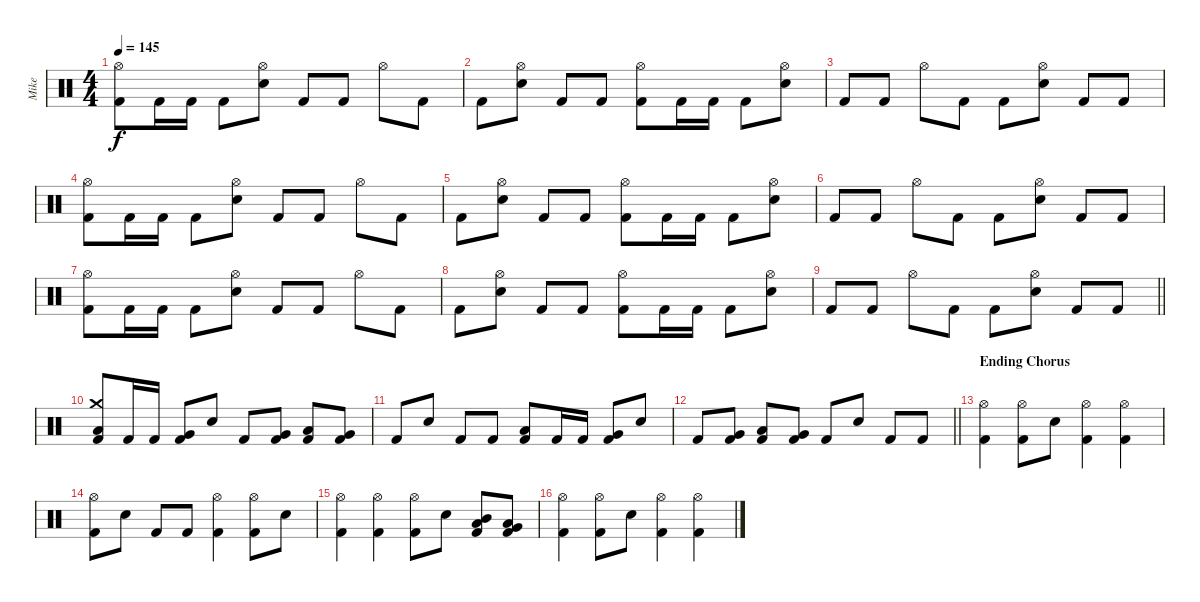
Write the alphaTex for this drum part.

\track ("Mike" "Mike") {instrument percussion}
\staff {score}
\articulation defaults
\ts (4 4)
\tempo 145
\clef neutral
\ks c
("Hi-Hat (open)" "Kick (hit) 2").8{dy f} "Kick (hit) 2".16 "Kick (hit) 2".16 "Kick (hit) 2".8 ("Hi-Hat (open)" "Snare (hit) 2").8 "Kick (hit) 2".8 "Kick (hit) 2".8 "Hi-Hat (open)".8 "Kick (hit) 2".8 |
"Kick (hit) 2".8 ("Hi-Hat (open)" "Snare (hit) 2").8 "Kick (hit) 2".8 "Kick (hit) 2".8 ("Hi-Hat (open)" "Kick (hit) 2").8 "Kick (hit) 2".16 "Kick (hit) 2".16 "Kick (hit) 2".8 ("Hi-Hat (open)" "Snare (hit) 2").8 |
"Kick (hit) 2".8 "Kick (hit) 2".8 "Hi-Hat (open)".8 "Kick (hit) 2".8 "Kick (hit) 2".8 ("Hi-Hat (open)" "Snare (hit) 2").8 "Kick (hit) 2".8 "Kick (hit) 2".8 |
("Hi-Hat (open)" "Kick (hit) 2").8 "Kick (hit) 2".16 "Kick (hit) 2".16 "Kick (hit) 2".8 ("Hi-Hat (open)" "Snare (hit) 2").8 "Kick (hit) 2".8 "Kick (hit) 2".8 "Hi-Hat (open)".8 "Kick (hit) 2".8 |
"Kick (hit) 2".8 ("Hi-Hat (open)" "Snare (hit) 2").8 "Kick (hit) 2".8 "Kick (hit) 2".8 ("Hi-Hat (open)" "Kick (hit) 2").8 "Kick (hit) 2".16 "Kick (hit) 2".16 "Kick (hit) 2".8 ("Hi-Hat (open)" "Snare (hit) 2").8 |
"Kick (hit) 2".8 "Kick (hit) 2".8 "Hi-Hat (open)".8 "Kick (hit) 2".8 "Kick (hit) 2".8 ("Hi-Hat (open)" "Snare (hit) 2").8 "Kick (hit) 2".8 "Kick (hit) 2".8 |
("Hi-Hat (open)" "Kick (hit) 2").8 "Kick (hit) 2".16 "Kick (hit) 2".16 "Kick (hit) 2".8 ("Hi-Hat (open)" "Snare (hit) 2").8 "Kick (hit) 2".8 "Kick (hit) 2".8 "Hi-Hat (open)".8 "Kick (hit) 2".8 |
"Kick (hit) 2".8 ("Hi-Hat (open)" "Snare (hit) 2").8 "Kick (hit) 2".8 "Kick (hit) 2".8 ("Hi-Hat (open)" "Kick (hit) 2").8 "Kick (hit) 2".16 "Kick (hit) 2".16 "Kick (hit) 2".8 ("Hi-Hat (open)" "Snare (hit) 2").8 |
\barLineRight lightlight "Kick (hit) 2".8 "Kick (hit) 2".8 "Hi-Hat (open)".8 "Kick (hit) 2".8 "Kick (hit) 2".8
("Hi-Hat (open)" "Snare (hit) 2").8 "Kick (hit) 2".8 "Kick (hit) 2".8 |
("Crash medium (hit)" "Low Tom (hit)" "Kick (hit) 2").8 "Kick (hit) 2".16 "Kick (hit) 2".16 ("Very Low Tom (hit)" "Kick (hit) 2").8 "Snare (hit) 2".8 "Kick (hit) 2".8 ("Very Low Tom (hit)" "Kick (hit) 2").8 ("Low Floor Tom (hit)" "Kick (hit) 2").8 ("Very Low Tom (hit)" "Kick (hit) 2").8 |
"Kick (hit) 2".8 "Snare (hit) 2".8 "Kick (hit) 2".8 "Kick (hit) 2".8 ("Low Tom (hit)" "Kick (hit) 2").8 "Kick (hit) 2".16 "Kick (hit) 2".16 ("Very Low Tom (hit)" "Kick (hit) 2").8 "Snare (hit) 2".8 |
\barLineRight lightlight "Kick (hit) 2".8
("Very Low Tom (hit)" "Kick (hit) 2").8 ("Low Floor Tom (hit)" "Kick (hit) 2").8 ("Very Low Tom (hit)" "Kick (hit) 2").8 "Kick (hit) 2".8 "Snare (hit) 2".8 "Kick (hit) 2".8 "Kick (hit) 2".8 |
\section ("" "Ending Chorus")
("Hi-Hat (open)" "Kick (hit) 2").4 ("Hi-Hat (open)" "Kick (hit) 2").8 "Snare (hit) 2".8 ("Hi-Hat (open)" "Kick (hit) 2").4 ("Hi-Hat (open)" "Kick (hit) 2").4 |
("Hi-Hat (open)" "Kick (hit) 2").8 "Snare (hit) 2".8 "Kick (hit) 2".8 "Kick (hit) 2".8 ("Hi-Hat (open)" "Kick (hit) 2").4 ("Hi-Hat (open)" "Kick (hit) 2").8 "Snare (hit) 2".8 |
("Hi-Hat (open)" "Kick (hit) 2").4 ("Hi-Hat (open)" "Kick (hit) 2").4 ("Hi-Hat (open)" "Kick (hit) 2").8 "Snare (hit) 2".8 ("Mid Tom (hit)" "Low Tom (hit)" "Kick (hit) 2").8 ("Low Tom (hit)" "Very Low Tom (hit)" "Kick (hit) 2").8 |
("Hi-Hat (open)" "Kick (hit) 2").4 ("Hi-Hat (open)" "Kick (hit) 2").8 "Snare (hit) 2".8 ("Hi-Hat (open)" "Kick (hit) 2").4 ("Hi-Hat (open)" "Kick (hit) 2").4
